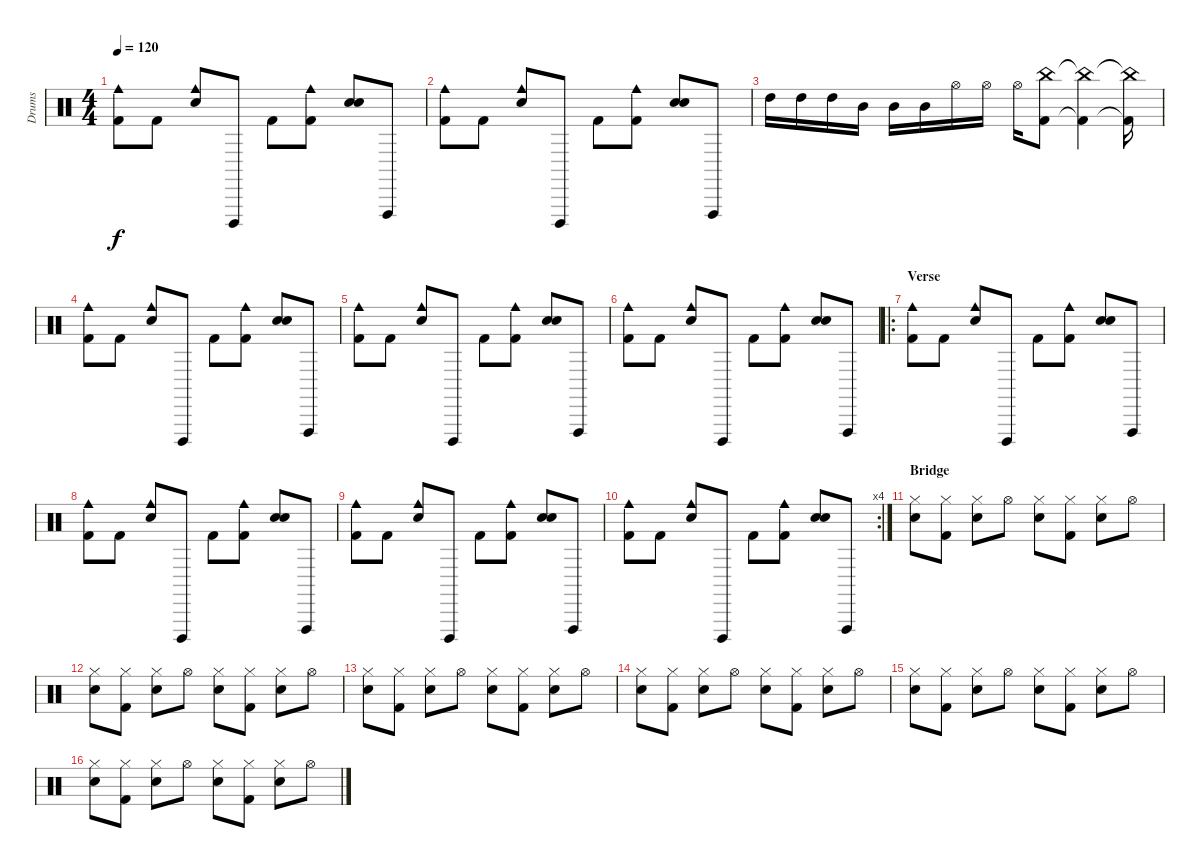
\track ("Drums" "Drums") {instrument percussion}
\staff {score}
\articulation defaults
\ts (4 4)
\tempo 120
\clef neutral
\ks c
("Cowbell medium (hit)" "Kick (hit) 2").8{dy f} "Kick (hit) 2".8 ("Cowbell medium (hit)" "Electric Snare (hit)").8 "Cuica (open)".8 "Kick (hit) 2".8 ("Cowbell medium (hit)" "Kick (hit) 2").8 ("Hand Clap (hit)" "Electric Snare (hit)").8 "Vibraslap (hit)".8 |
("Cowbell medium (hit)" "Kick (hit) 2").8 "Kick (hit) 2".8 ("Cowbell medium (hit)" "Electric Snare (hit)").8 "Cuica (open)".8 "Kick (hit) 2".8 ("Cowbell medium (hit)" "Kick (hit) 2").8 ("Hand Clap (hit)" "Electric Snare (hit)").8 "Vibraslap (hit)".8 |
"High Tom (hit)".16 "High Tom (hit)".16 "High Tom (hit)".16 "Mid Tom (hit)".16 "Mid Tom (hit)".16 "Mid Tom (hit)".16 "Hi-Hat (open)".16 "Hi-Hat (open)".16 "Hi-Hat (open)".16 ("China (hit)" "Kick (hit) 2").8 ("China (hit)"{t} "Kick (hit) 2"{t}).4 ("China (hit)"{t} "Kick (hit) 2"{t}).16 |
("Cowbell medium (hit)" "Kick (hit) 2").8 "Kick (hit) 2".8 ("Cowbell medium (hit)" "Electric Snare (hit)").8 "Cuica (open)".8 "Kick (hit) 2".8 ("Cowbell medium (hit)" "Kick (hit) 2").8 ("Hand Clap (hit)" "Electric Snare (hit)").8 "Vibraslap (hit)".8 |
("Cowbell medium (hit)" "Kick (hit) 2").8 "Kick (hit) 2".8 ("Cowbell medium (hit)" "Electric Snare (hit)").8 "Cuica (open)".8 "Kick (hit) 2".8 ("Cowbell medium (hit)" "Kick (hit) 2").8 ("Hand Clap (hit)" "Electric Snare (hit)").8 "Vibraslap (hit)".8 |
("Cowbell medium (hit)" "Kick (hit) 2").8 "Kick (hit) 2".8 ("Cowbell medium (hit)" "Electric Snare (hit)").8 "Cuica (open)".8 "Kick (hit) 2".8 ("Cowbell medium (hit)" "Kick (hit) 2").8 ("Hand Clap (hit)" "Electric Snare (hit)").8 "Vibraslap (hit)".8 |
\ro
\section ("" "Verse")
("Cowbell medium (hit)" "Kick (hit) 2").8 "Kick (hit) 2".8 ("Cowbell medium (hit)" "Electric Snare (hit)").8 "Cuica (open)".8 "Kick (hit) 2".8 ("Cowbell medium (hit)" "Kick (hit) 2").8 ("Hand Clap (hit)" "Electric Snare (hit)").8 "Vibraslap (hit)".8 |
("Cowbell medium (hit)" "Kick (hit) 2").8 "Kick (hit) 2".8 ("Cowbell medium (hit)" "Electric Snare (hit)").8 "Cuica (open)".8 "Kick (hit) 2".8 ("Cowbell medium (hit)" "Kick (hit) 2").8 ("Hand Clap (hit)" "Electric Snare (hit)").8 "Vibraslap (hit)".8 |
("Cowbell medium (hit)" "Kick (hit) 2").8 "Kick (hit) 2".8 ("Cowbell medium (hit)" "Electric Snare (hit)").8 "Cuica (open)".8 "Kick (hit) 2".8 ("Cowbell medium (hit)" "Kick (hit) 2").8 ("Hand Clap (hit)" "Electric Snare (hit)").8 "Vibraslap (hit)".8 |
\rc 4
("Cowbell medium (hit)" "Kick (hit) 2").8 "Kick (hit) 2".8 ("Cowbell medium (hit)" "Electric Snare (hit)").8 "Cuica (open)".8 "Kick (hit) 2".8 ("Cowbell medium (hit)" "Kick (hit) 2").8 ("Hand Clap (hit)" "Electric Snare (hit)").8 "Vibraslap (hit)".8 |
\section ("" "Bridge")
("Electric Snare (hit)" "Hi-Hat (closed)").8 ("Hi-Hat (closed)" "Kick (hit) 2").8 ("Electric Snare (hit)" "Hi-Hat (closed)").8 "Hi-Hat (open)".8 ("Electric Snare (hit)" "Hi-Hat (closed)").8 ("Hi-Hat (closed)" "Kick (hit) 2").8 ("Electric Snare (hit)" "Hi-Hat (closed)").8 "Hi-Hat (open)".8 |
("Electric Snare (hit)" "Hi-Hat (closed)").8 ("Hi-Hat (closed)" "Kick (hit) 2").8 ("Electric Snare (hit)" "Hi-Hat (closed)").8 "Hi-Hat (open)".8 ("Electric Snare (hit)" "Hi-Hat (closed)").8 ("Hi-Hat (closed)" "Kick (hit) 2").8 ("Electric Snare (hit)" "Hi-Hat (closed)").8 "Hi-Hat (open)".8 |
("Electric Snare (hit)" "Hi-Hat (closed)").8 ("Hi-Hat (closed)" "Kick (hit) 2").8 ("Electric Snare (hit)" "Hi-Hat (closed)").8 "Hi-Hat (open)".8 ("Electric Snare (hit)" "Hi-Hat (closed)").8 ("Hi-Hat (closed)" "Kick (hit) 2").8 ("Electric Snare (hit)" "Hi-Hat (closed)").8 "Hi-Hat (open)".8 |
("Electric Snare (hit)" "Hi-Hat (closed)").8 ("Hi-Hat (closed)" "Kick (hit) 2").8 ("Electric Snare (hit)" "Hi-Hat (closed)").8 "Hi-Hat (open)".8 ("Electric Snare (hit)" "Hi-Hat (closed)").8 ("Hi-Hat (closed)" "Kick (hit) 2").8 ("Electric Snare (hit)" "Hi-Hat (closed)").8 "Hi-Hat (open)".8 |
("Electric Snare (hit)" "Hi-Hat (closed)").8 ("Hi-Hat (closed)" "Kick (hit) 2").8 ("Electric Snare (hit)" "Hi-Hat (closed)").8 "Hi-Hat (open)".8 ("Electric Snare (hit)" "Hi-Hat (closed)").8 ("Hi-Hat (closed)" "Kick (hit) 2").8 ("Electric Snare (hit)" "Hi-Hat (closed)").8 "Hi-Hat (open)".8 |
("Electric Snare (hit)" "Hi-Hat (closed)").8 ("Hi-Hat (closed)" "Kick (hit) 2").8 ("Electric Snare (hit)" "Hi-Hat (closed)").8 "Hi-Hat (open)".8 ("Electric Snare (hit)" "Hi-Hat (closed)").8 ("Hi-Hat (closed)" "Kick (hit) 2").8 ("Electric Snare (hit)" "Hi-Hat (closed)").8 "Hi-Hat (open)".8
